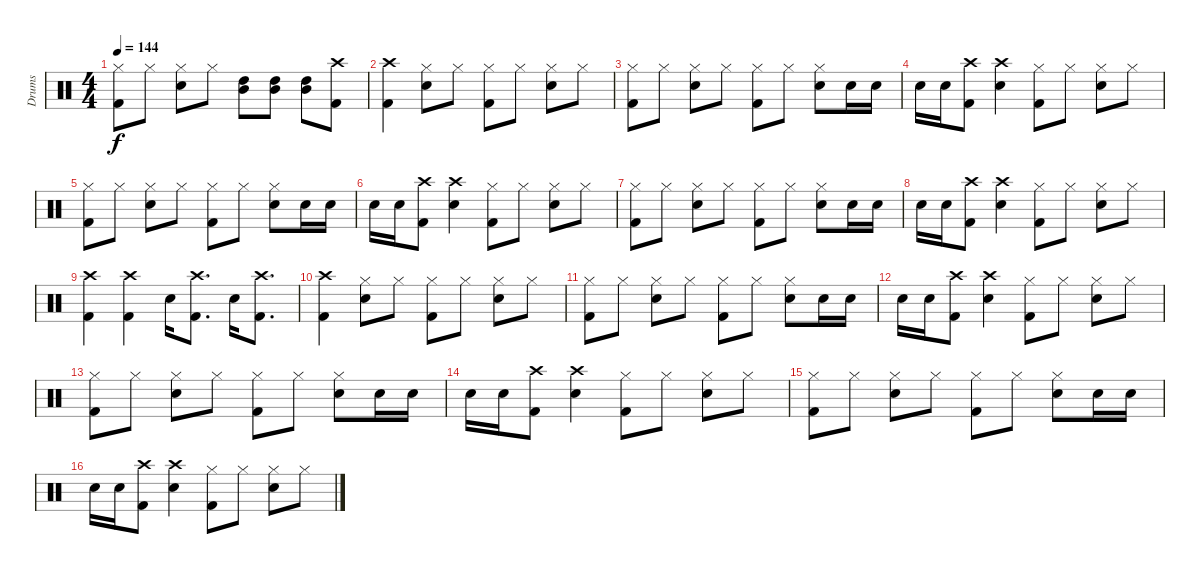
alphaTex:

\track ("Drums" "Drums") {instrument percussion}
\staff {score}
\articulation defaults
\ts (4 4)
\tempo 144
\clef neutral
\ks c
("Hi-Hat (closed)" "Kick (hit) 2").8{dy f} "Hi-Hat (closed)".8 ("Hi-Hat (closed)" "Snare (hit) 2").8 "Hi-Hat (closed)".8 ("High Tom (hit)" "Mid Tom (hit)").8 ("High Tom (hit)" "Mid Tom (hit)").8 ("High Tom (hit)" "Mid Tom (hit)").8 ("Crash high (hit)" "Kick (hit) 2").8 |
("Crash high (hit)" "Kick (hit) 2").4 ("Hi-Hat (closed)" "Snare (hit) 2").8 "Hi-Hat (closed)".8 ("Hi-Hat (closed)" "Kick (hit) 2").8 "Hi-Hat (closed)".8 ("Hi-Hat (closed)" "Snare (hit) 2").8 "Hi-Hat (closed)".8 |
("Hi-Hat (closed)" "Kick (hit) 2").8 "Hi-Hat (closed)".8 ("Hi-Hat (closed)" "Snare (hit) 2").8 "Hi-Hat (closed)".8 ("Hi-Hat (closed)" "Kick (hit) 2").8 "Hi-Hat (closed)".8 ("Hi-Hat (closed)" "Snare (hit) 2").8 "Snare (hit) 2".16 "Snare (hit) 2".16 |
"Snare (hit) 2".16 "Snare (hit) 2".16 ("Crash high (hit)" "Kick (hit) 2").8 ("Crash high (hit)" "Snare (hit) 2").4 ("Hi-Hat (closed)" "Kick (hit) 2").8 "Hi-Hat (closed)".8 ("Hi-Hat (closed)" "Snare (hit) 2").8 "Hi-Hat (closed)".8 |
("Hi-Hat (closed)" "Kick (hit) 2").8 "Hi-Hat (closed)".8 ("Hi-Hat (closed)" "Snare (hit) 2").8 "Hi-Hat (closed)".8 ("Hi-Hat (closed)" "Kick (hit) 2").8 "Hi-Hat (closed)".8 ("Hi-Hat (closed)" "Snare (hit) 2").8 "Snare (hit) 2".16 "Snare (hit) 2".16 |
"Snare (hit) 2".16 "Snare (hit) 2".16 ("Crash high (hit)" "Kick (hit) 2").8 ("Crash high (hit)" "Snare (hit) 2").4 ("Hi-Hat (closed)" "Kick (hit) 2").8 "Hi-Hat (closed)".8 ("Hi-Hat (closed)" "Snare (hit) 2").8 "Hi-Hat (closed)".8 |
("Hi-Hat (closed)" "Kick (hit) 2").8 "Hi-Hat (closed)".8 ("Hi-Hat (closed)" "Snare (hit) 2").8 "Hi-Hat (closed)".8 ("Hi-Hat (closed)" "Kick (hit) 2").8 "Hi-Hat (closed)".8 ("Hi-Hat (closed)" "Snare (hit) 2").8 "Snare (hit) 2".16 "Snare (hit) 2".16 |
"Snare (hit) 2".16 "Snare (hit) 2".16 ("Crash high (hit)" "Kick (hit) 2").8 ("Crash high (hit)" "Snare (hit) 2").4 ("Hi-Hat (closed)" "Kick (hit) 2").8 "Hi-Hat (closed)".8 ("Hi-Hat (closed)" "Snare (hit) 2").8 "Hi-Hat (closed)".8 |
("Crash high (hit)" "Kick (hit) 2").4 ("Crash high (hit)" "Kick (hit) 2").4 "Snare (hit) 2".16 ("Crash high (hit)" "Kick (hit) 2").8{d} "Snare (hit) 2".16 ("Crash high (hit)" "Kick (hit) 2").8{d} |
("Crash high (hit)" "Kick (hit) 2").4 ("Hi-Hat (closed)" "Snare (hit) 2").8 "Hi-Hat (closed)".8 ("Hi-Hat (closed)" "Kick (hit) 2").8 "Hi-Hat (closed)".8 ("Hi-Hat (closed)" "Snare (hit) 2").8 "Hi-Hat (closed)".8 |
("Hi-Hat (closed)" "Kick (hit) 2").8 "Hi-Hat (closed)".8 ("Hi-Hat (closed)" "Snare (hit) 2").8 "Hi-Hat (closed)".8 ("Hi-Hat (closed)" "Kick (hit) 2").8 "Hi-Hat (closed)".8 ("Hi-Hat (closed)" "Snare (hit) 2").8 "Snare (hit) 2".16 "Snare (hit) 2".16 |
"Snare (hit) 2".16 "Snare (hit) 2".16 ("Crash high (hit)" "Kick (hit) 2").8 ("Crash high (hit)" "Snare (hit) 2").4 ("Hi-Hat (closed)" "Kick (hit) 2").8 "Hi-Hat (closed)".8 ("Hi-Hat (closed)" "Snare (hit) 2").8 "Hi-Hat (closed)".8 |
("Hi-Hat (closed)" "Kick (hit) 2").8 "Hi-Hat (closed)".8 ("Hi-Hat (closed)" "Snare (hit) 2").8 "Hi-Hat (closed)".8 ("Hi-Hat (closed)" "Kick (hit) 2").8 "Hi-Hat (closed)".8 ("Hi-Hat (closed)" "Snare (hit) 2").8 "Snare (hit) 2".16 "Snare (hit) 2".16 |
"Snare (hit) 2".16 "Snare (hit) 2".16 ("Crash high (hit)" "Kick (hit) 2").8 ("Crash high (hit)" "Snare (hit) 2").4 ("Hi-Hat (closed)" "Kick (hit) 2").8 "Hi-Hat (closed)".8 ("Hi-Hat (closed)" "Snare (hit) 2").8 "Hi-Hat (closed)".8 |
("Hi-Hat (closed)" "Kick (hit) 2").8 "Hi-Hat (closed)".8 ("Hi-Hat (closed)" "Snare (hit) 2").8 "Hi-Hat (closed)".8 ("Hi-Hat (closed)" "Kick (hit) 2").8 "Hi-Hat (closed)".8 ("Hi-Hat (closed)" "Snare (hit) 2").8 "Snare (hit) 2".16 "Snare (hit) 2".16 |
"Snare (hit) 2".16 "Snare (hit) 2".16 ("Crash high (hit)" "Kick (hit) 2").8 ("Crash high (hit)" "Snare (hit) 2").4 ("Hi-Hat (closed)" "Kick (hit) 2").8 "Hi-Hat (closed)".8 ("Hi-Hat (closed)" "Snare (hit) 2").8 "Hi-Hat (closed)".8
